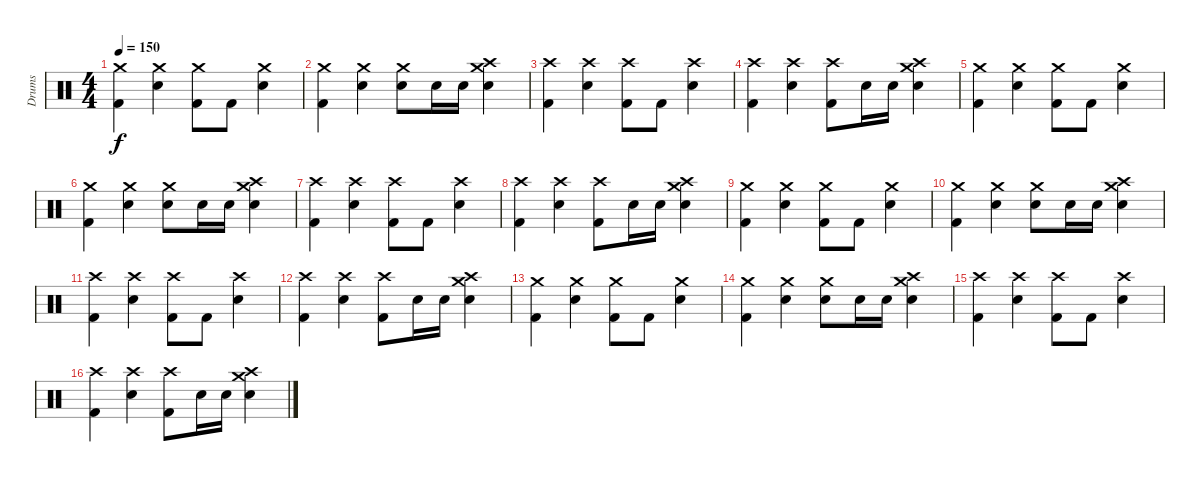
\track ("Drums" "Drums") {instrument percussion}
\staff {score}
\articulation defaults
\ts (4 4)
\tempo 150
\clef neutral
\ks c
("Crash medium (hit)" "Kick (hit) 2").4{dy f} ("Crash medium (hit)" "Electric Snare (hit)").4 ("Crash medium (hit)" "Kick (hit) 2").8 "Kick (hit) 2".8 ("Crash medium (hit)" "Electric Snare (hit)").4 |
("Crash medium (hit)" "Kick (hit) 2").4 ("Crash medium (hit)" "Electric Snare (hit)").4 ("Crash medium (hit)" "Electric Snare (hit)").8 "Electric Snare (hit)".16 "Electric Snare (hit)".16 ("Crash high (hit)" "Crash medium (hit)" "Electric Snare (hit)").4 |
("Crash high (hit)" "Kick (hit) 2").4 ("Crash high (hit)" "Electric Snare (hit)").4 ("Crash high (hit)" "Kick (hit) 2").8 "Kick (hit) 2".8 ("Crash high (hit)" "Electric Snare (hit)").4 |
("Crash high (hit)" "Kick (hit) 2").4 ("Crash high (hit)" "Electric Snare (hit)").4 ("Crash high (hit)" "Kick (hit) 2").8 "Electric Snare (hit)".16 "Electric Snare (hit)".16 ("Crash medium (hit)" "Crash high (hit)" "Electric Snare (hit)").4 |
("Crash medium (hit)" "Kick (hit) 2").4 ("Crash medium (hit)" "Electric Snare (hit)").4 ("Crash medium (hit)" "Kick (hit) 2").8 "Kick (hit) 2".8 ("Crash medium (hit)" "Electric Snare (hit)").4 |
("Crash medium (hit)" "Kick (hit) 2").4 ("Crash medium (hit)" "Electric Snare (hit)").4 ("Crash medium (hit)" "Electric Snare (hit)").8 "Electric Snare (hit)".16 "Electric Snare (hit)".16 ("Crash high (hit)" "Crash medium (hit)" "Electric Snare (hit)").4 |
("Crash high (hit)" "Kick (hit) 2").4 ("Crash high (hit)" "Electric Snare (hit)").4 ("Crash high (hit)" "Kick (hit) 2").8 "Kick (hit) 2".8 ("Crash high (hit)" "Electric Snare (hit)").4 |
("Crash high (hit)" "Kick (hit) 2").4 ("Crash high (hit)" "Electric Snare (hit)").4 ("Crash high (hit)" "Kick (hit) 2").8 "Electric Snare (hit)".16 "Electric Snare (hit)".16 ("Crash medium (hit)" "Crash high (hit)" "Electric Snare (hit)").4 |
("Crash medium (hit)" "Kick (hit) 2").4 ("Crash medium (hit)" "Electric Snare (hit)").4 ("Crash medium (hit)" "Kick (hit) 2").8 "Kick (hit) 2".8 ("Crash medium (hit)" "Electric Snare (hit)").4 |
("Crash medium (hit)" "Kick (hit) 2").4 ("Crash medium (hit)" "Electric Snare (hit)").4 ("Crash medium (hit)" "Electric Snare (hit)").8 "Electric Snare (hit)".16 "Electric Snare (hit)".16 ("Crash high (hit)" "Crash medium (hit)" "Electric Snare (hit)").4 |
("Crash high (hit)" "Kick (hit) 2").4 ("Crash high (hit)" "Electric Snare (hit)").4 ("Crash high (hit)" "Kick (hit) 2").8 "Kick (hit) 2".8 ("Crash high (hit)" "Electric Snare (hit)").4 |
("Crash high (hit)" "Kick (hit) 2").4 ("Crash high (hit)" "Electric Snare (hit)").4 ("Crash high (hit)" "Kick (hit) 2").8 "Electric Snare (hit)".16 "Electric Snare (hit)".16 ("Crash medium (hit)" "Crash high (hit)" "Electric Snare (hit)").4 |
("Crash medium (hit)" "Kick (hit) 2").4 ("Crash medium (hit)" "Electric Snare (hit)").4 ("Crash medium (hit)" "Kick (hit) 2").8 "Kick (hit) 2".8 ("Crash medium (hit)" "Electric Snare (hit)").4 |
("Crash medium (hit)" "Kick (hit) 2").4 ("Crash medium (hit)" "Electric Snare (hit)").4 ("Crash medium (hit)" "Electric Snare (hit)").8 "Electric Snare (hit)".16 "Electric Snare (hit)".16 ("Crash high (hit)" "Crash medium (hit)" "Electric Snare (hit)").4 |
("Crash high (hit)" "Kick (hit) 2").4 ("Crash high (hit)" "Electric Snare (hit)").4 ("Crash high (hit)" "Kick (hit) 2").8 "Kick (hit) 2".8 ("Crash high (hit)" "Electric Snare (hit)").4 |
("Crash high (hit)" "Kick (hit) 2").4 ("Crash high (hit)" "Electric Snare (hit)").4 ("Crash high (hit)" "Kick (hit) 2").8 "Electric Snare (hit)".16 "Electric Snare (hit)".16 ("Crash medium (hit)" "Crash high (hit)" "Electric Snare (hit)").4
